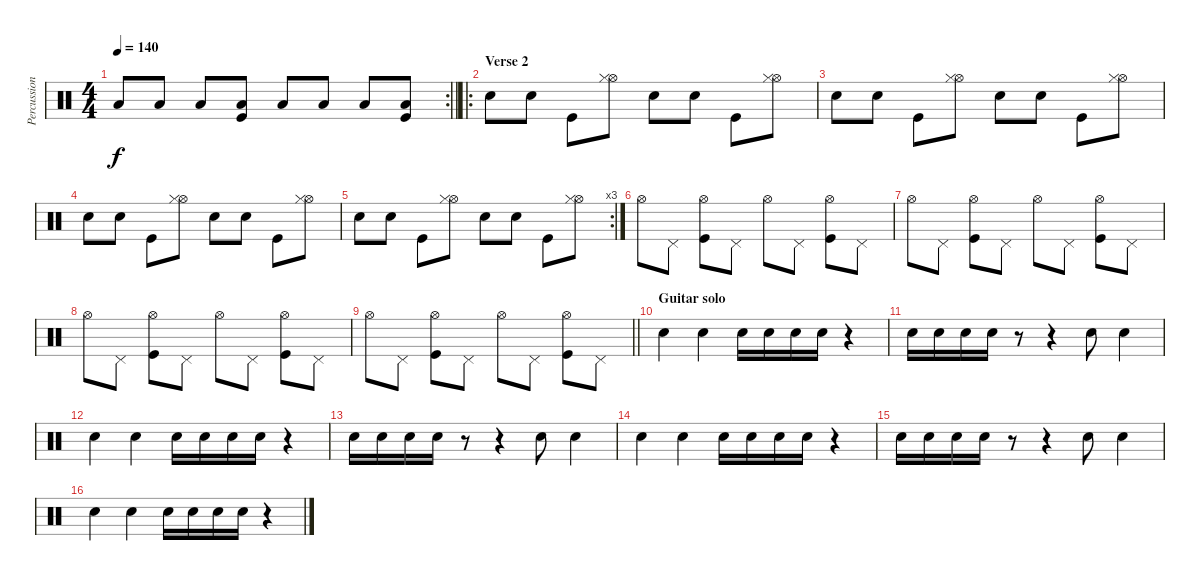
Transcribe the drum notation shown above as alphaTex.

\track ("Percussion" "Percussion") {instrument percussion}
\staff {score}
\articulation defaults
\rc 2
\ts (4 4)
\tempo 140
\clef neutral
\barLineRight lightlight
\ks c "Low Tom (hit)".8{dy f} "Low Tom (hit)".8 "Low Tom (hit)".8
("Low Tom (hit)" "Kick (hit)").8 "Low Tom (hit)".8 "Low Tom (hit)".8 "Low Tom (hit)".8 ("Low Tom (hit)" "Kick (hit)").8 |
\ro
\section ("" "Verse 2")
"Snare (hit) 2".8 "Snare (hit) 2".8 "Kick (hit)".8 ("Hi-Hat (open)" "Hi-Hat (closed)").8 "Snare (hit) 2".8 "Snare (hit) 2".8 "Kick (hit)".8 ("Hi-Hat (open)" "Hi-Hat (closed)").8 |
"Snare (hit) 2".8 "Snare (hit) 2".8 "Kick (hit)".8 ("Hi-Hat (open)" "Hi-Hat (closed)").8 "Snare (hit) 2".8 "Snare (hit) 2".8 "Kick (hit)".8 ("Hi-Hat (open)" "Hi-Hat (closed)").8 |
"Snare (hit) 2".8 "Snare (hit) 2".8 "Kick (hit)".8 ("Hi-Hat (open)" "Hi-Hat (closed)").8 "Snare (hit) 2".8 "Snare (hit) 2".8 "Kick (hit)".8 ("Hi-Hat (open)" "Hi-Hat (closed)").8 |
\rc 3 "Snare (hit) 2".8 "Snare (hit) 2".8 "Kick (hit)".8
("Hi-Hat (open)" "Hi-Hat (closed)").8 "Snare (hit) 2".8 "Snare (hit) 2".8 "Kick (hit)".8 ("Hi-Hat (open)" "Hi-Hat (closed)").8 |
"Hi-Hat (open)".8 "Pedal Hi-Hat (hit)".8 ("Hi-Hat (open)" "Kick (hit)").8 "Pedal Hi-Hat (hit)".8 "Hi-Hat (open)".8 "Pedal Hi-Hat (hit)".8 ("Hi-Hat (open)" "Kick (hit)").8 "Pedal Hi-Hat (hit)".8 |
"Hi-Hat (open)".8 "Pedal Hi-Hat (hit)".8 ("Hi-Hat (open)" "Kick (hit)").8 "Pedal Hi-Hat (hit)".8 "Hi-Hat (open)".8 "Pedal Hi-Hat (hit)".8 ("Hi-Hat (open)" "Kick (hit)").8 "Pedal Hi-Hat (hit)".8 |
"Hi-Hat (open)".8 "Pedal Hi-Hat (hit)".8 ("Hi-Hat (open)" "Kick (hit)").8 "Pedal Hi-Hat (hit)".8 "Hi-Hat (open)".8 "Pedal Hi-Hat (hit)".8 ("Hi-Hat (open)" "Kick (hit)").8 "Pedal Hi-Hat (hit)".8 |
\barLineRight lightlight "Hi-Hat (open)".8 "Pedal Hi-Hat (hit)".8
("Hi-Hat (open)" "Kick (hit)").8 "Pedal Hi-Hat (hit)".8 "Hi-Hat (open)".8 "Pedal Hi-Hat (hit)".8 ("Hi-Hat (open)" "Kick (hit)").8 "Pedal Hi-Hat (hit)".8 |
\section ("" "Guitar solo")
"Snare (hit) 2".4 "Snare (hit) 2".4 "Snare (hit) 2".16 "Snare (hit) 2".16 "Snare (hit) 2".16 "Snare (hit) 2".16 r.4 |
"Snare (hit) 2".16 "Snare (hit) 2".16 "Snare (hit) 2".16 "Snare (hit) 2".16 r.8 r.4 "Snare (hit) 2".8 "Snare (hit) 2".4 |
"Snare (hit) 2".4 "Snare (hit) 2".4 "Snare (hit) 2".16 "Snare (hit) 2".16 "Snare (hit) 2".16 "Snare (hit) 2".16 r.4 |
"Snare (hit) 2".16 "Snare (hit) 2".16 "Snare (hit) 2".16 "Snare (hit) 2".16 r.8 r.4 "Snare (hit) 2".8 "Snare (hit) 2".4 |
"Snare (hit) 2".4 "Snare (hit) 2".4 "Snare (hit) 2".16 "Snare (hit) 2".16 "Snare (hit) 2".16 "Snare (hit) 2".16 r.4 |
"Snare (hit) 2".16 "Snare (hit) 2".16 "Snare (hit) 2".16 "Snare (hit) 2".16 r.8 r.4 "Snare (hit) 2".8 "Snare (hit) 2".4 |
"Snare (hit) 2".4 "Snare (hit) 2".4 "Snare (hit) 2".16 "Snare (hit) 2".16 "Snare (hit) 2".16 "Snare (hit) 2".16 r.4
